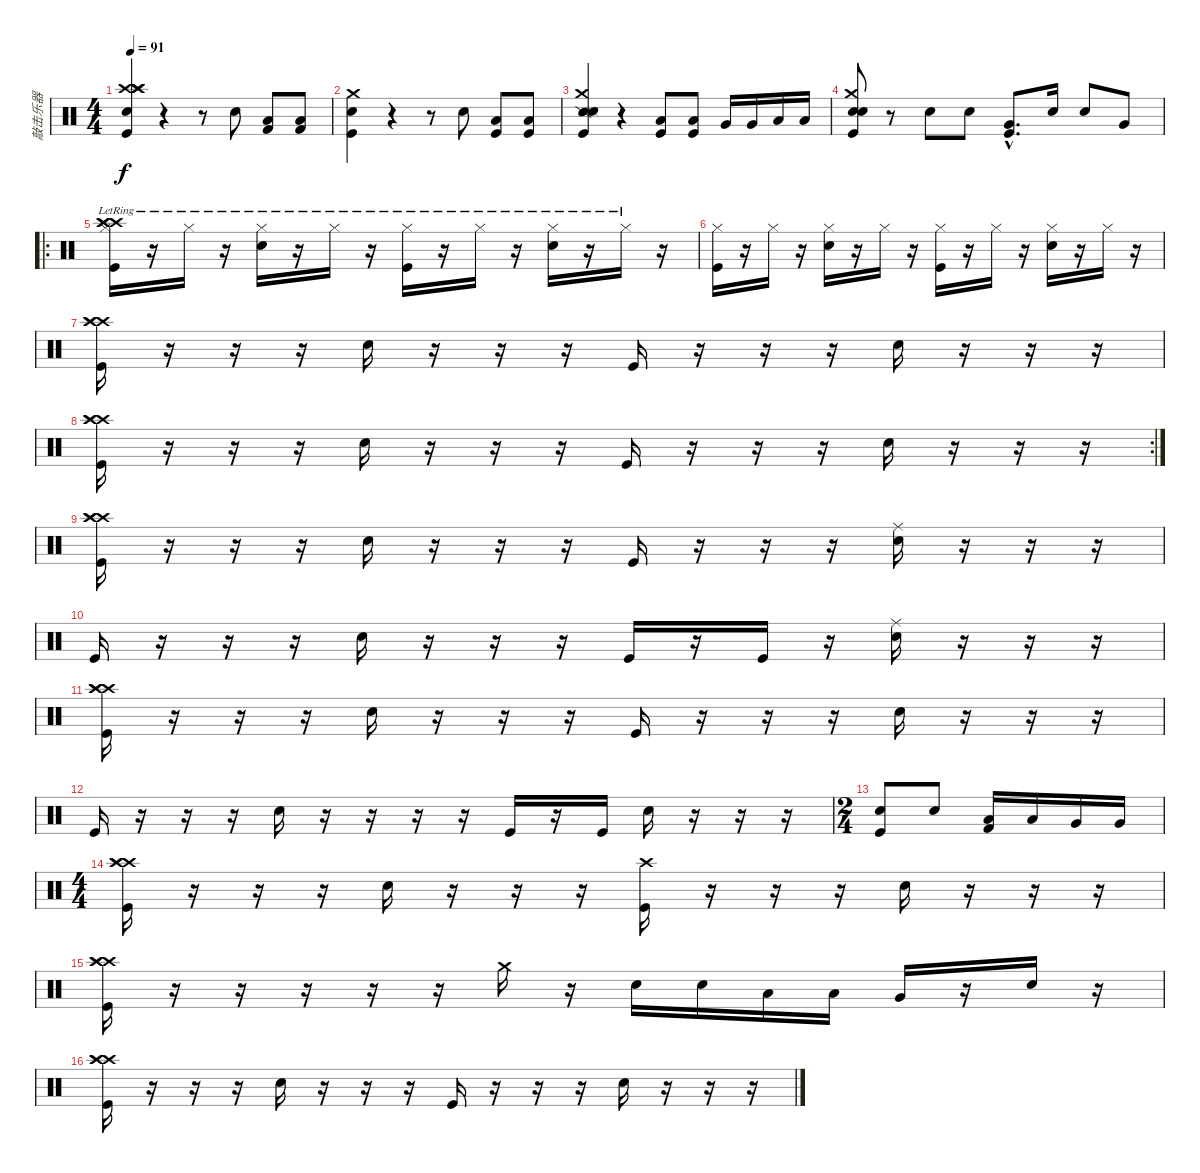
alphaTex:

\track ("敲击乐器" "敲击乐器") {instrument percussion}
\staff {score}
\articulation defaults
\ts (4 4)
\tempo 91
\clef neutral
\ks c
("Kick (hit)" "Crash high (hit)" "Crash high (hit)" "Crash high (hit)" "Crash high (hit)" "Electric Snare (hit)").4{dy f} r.4 r.8 "Electric Snare (hit)".8 ("Low Floor Tom (hit)" "Kick (hit) 2").8 ("Low Floor Tom (hit)" "Kick (hit) 2").8 |
("Crash medium (hit)" "Electric Snare (hit)" "Kick (hit)").4 r.4 r.8 "Electric Snare (hit)".8 ("Low Floor Tom (hit)" "Kick (hit)").8 ("Low Floor Tom (hit)" "Kick (hit)").8 |
("Snare (side stick) 2" "Metronome (hit)" "Metronome (bell)" "Kick (hit)" "Crash medium (hit)").4 r.4 ("Low Tom (hit)" "Kick (hit)").8 ("Low Tom (hit)" "Kick (hit)").8 "Very Low Tom (hit)".16 "Very Low Tom (hit)".16 "Low Floor Tom (hit)".16 "Low Floor Tom (hit)".16 |
("Crash medium (hit)" "Metronome (bell)" "Kick (hit)" "Electric Snare (hit)").8 r.8 "Electric Snare (hit)".8 "Electric Snare (hit)".8 ("Very Low Tom (hit)"{hac} "Kick (hit)"{hac}).8{d} "Electric Snare (hit)".16 "Electric Snare (hit)".8 "Very Low Tom (hit)".8 |
\ro
("Hi-Hat (closed)"{lr} "Kick (hit)" "Crash high (hit)" "Crash high (hit)" "Crash high (hit)").16 r.16 "Hi-Hat (closed)"{lr}.16 r.16 ("Hi-Hat (closed)"{lr} "Electric Snare (hit)").16 r.16 "Hi-Hat (closed)"{lr}.16 r.16 ("Hi-Hat (closed)"{lr} "Kick (hit)").16 r.16 "Hi-Hat (closed)"{lr}.16 r.16 ("Hi-Hat (closed)"{lr} "Electric Snare (hit)").16 r.16 "Hi-Hat (closed)"{lr}.16 r.16 |
("Hi-Hat (closed)" "Kick (hit)").16 r.16 "Hi-Hat (closed)".16 r.16 ("Hi-Hat (closed)" "Electric Snare (hit)").16 r.16 "Hi-Hat (closed)".16 r.16 ("Hi-Hat (closed)" "Kick (hit)").16 r.16 "Hi-Hat (closed)".16 r.16 ("Hi-Hat (closed)" "Electric Snare (hit)").16 r.16 "Hi-Hat (closed)".16 r.16 |
("Kick (hit)" "Crash high (hit)" "Crash high (hit)" "Crash high (hit)").16 r.16 r.16 r.16 "Electric Snare (hit)".16 r.16 r.16 r.16 "Kick (hit)".16 r.16 r.16 r.16 "Electric Snare (hit)".16 r.16 r.16 r.16 |
\rc 2
("Kick (hit)" "Crash high (hit)" "Crash high (hit)" "Crash high (hit)").16 r.16 r.16 r.16 "Electric Snare (hit)".16 r.16 r.16 r.16 "Kick (hit)".16 r.16 r.16 r.16 "Electric Snare (hit)".16 r.16 r.16 r.16 |
("Kick (hit)" "Crash high (hit)" "Crash high (hit)" "Crash high (hit)").16 r.16 r.16 r.16 "Electric Snare (hit)".16 r.16 r.16 r.16 "Kick (hit)".16 r.16 r.16 r.16 ("Ride (middle)" "Electric Snare (hit)").16 r.16 r.16 r.16 |
"Kick (hit)".16 r.16 r.16 r.16 "Electric Snare (hit)".16 r.16 r.16 r.16 "Kick (hit)".16 r.16 "Kick (hit)".16 r.16 ("Ride (middle)" "Electric Snare (hit)").16 r.16 r.16 r.16 |
("Kick (hit)" "Crash high (hit)" "Crash high (hit)" "Crash high (hit)").16 r.16 r.16 r.16 "Electric Snare (hit)".16 r.16 r.16 r.16 "Kick (hit)".16 r.16 r.16 r.16 "Electric Snare (hit)".16 r.16 r.16 r.16 |
"Kick (hit)".16 r.16 r.16 r.16 "Electric Snare (hit)".16 r.16 r.16 r.16 r.16 "Kick (hit)".16 r.16 "Kick (hit)".16 "Electric Snare (hit)".16 r.16 r.16 r.16 |
\ts (2 4)
("Electric Snare (hit)" "Kick (hit)").8 "Electric Snare (hit)".8 ("Low Tom (hit)" "Kick (hit) 2").16 "Low Tom (hit)".16 "Very Low Tom (hit)".16 "Very Low Tom (hit)".16 |
\ts (4 4)
("Kick (hit)" "Crash high (hit)" "Crash high (hit)" "Crash high (hit)").16 r.16 r.16 r.16 "Electric Snare (hit)".16 r.16 r.16 r.16 ("Kick (hit)" "Crash high (hit)").16 r.16 r.16 r.16 "Electric Snare (hit)".16 r.16 r.16 r.16 |
("Kick (hit)" "Crash high (hit)" "Crash high (hit)" "Crash high (hit)").16 r.16 r.16 r.16 r.16 r.16 "Crash medium (hit)".16 r.16 "Electric Snare (hit)".16 "Electric Snare (hit)".16 "Low Tom (hit)".16 "Low Tom (hit)".16 "Very Low Tom (hit)".16 r.16 "Electric Snare (hit)".16 r.16 |
("Kick (hit)" "Crash high (hit)" "Crash high (hit)" "Crash high (hit)").16 r.16 r.16 r.16 "Electric Snare (hit)".16 r.16 r.16 r.16 "Kick (hit)".16 r.16 r.16 r.16 "Electric Snare (hit)".16 r.16 r.16 r.16
